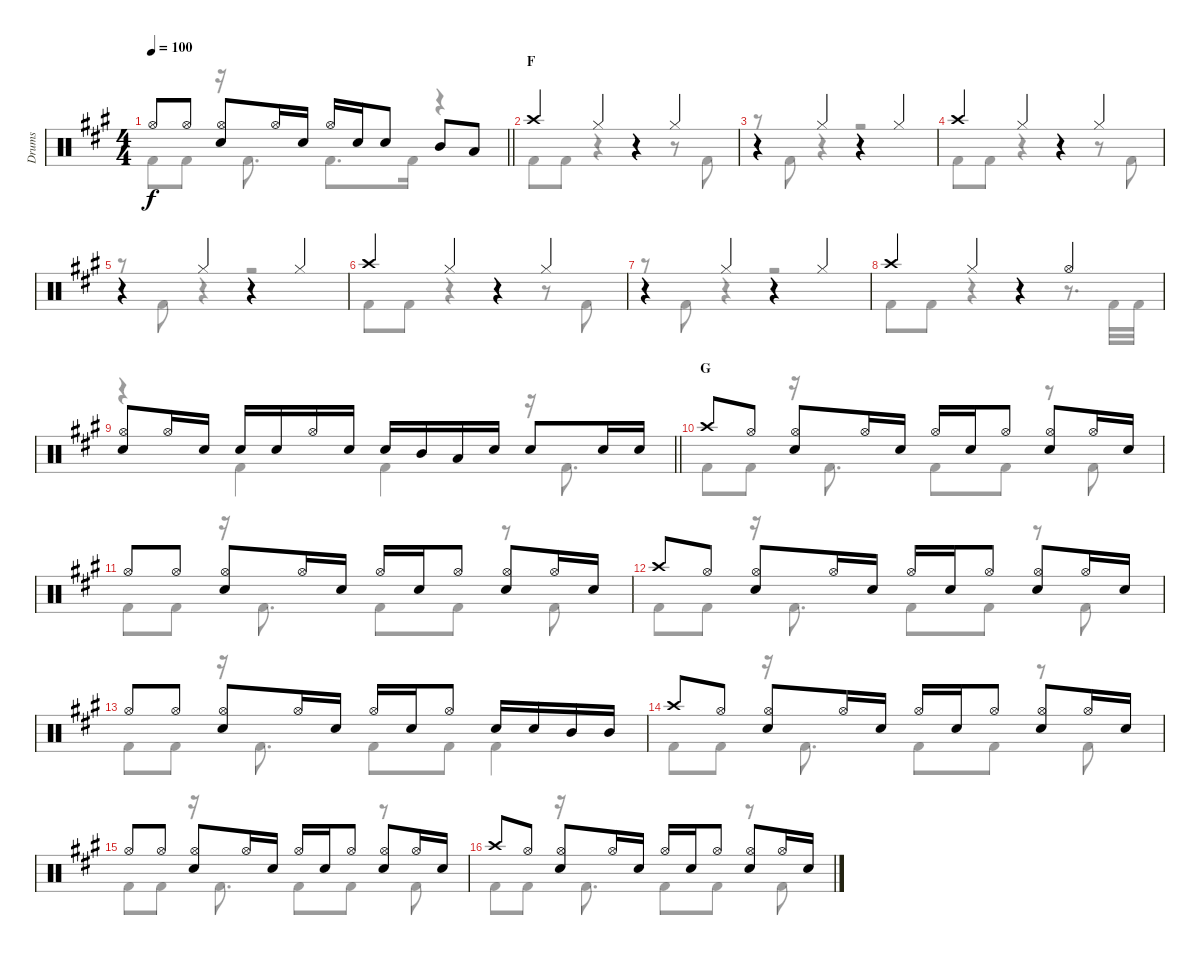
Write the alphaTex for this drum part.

\track ("Drums" "Drums") {instrument percussion}
\staff {score}
\articulation defaults
\voice
\ts (4 4)
\tempo 100
\clef neutral
\barLineRight lightlight
\ks a "Hi-Hat (open)".8{dy f} "Hi-Hat (open)".8
("Hi-Hat (open)" "Electric Snare (hit)").8 "Hi-Hat (open)".16 "Electric Snare (hit)".16 "Hi-Hat (open)".16 "Electric Snare (hit)".16 "Electric Snare (hit)".8 "Mid Tom (hit)".8 "Low Tom (hit)".8 |
\section ("" "F")
"Crash high (hit)".4 "Hi-Hat (closed)".4 r.4 "Hi-Hat (closed)".4 |
r.4 "Hi-Hat (closed)".4 r.4 "Hi-Hat (closed)".4 |
"Crash high (hit)".4 "Hi-Hat (closed)".4 r.4 "Hi-Hat (closed)".4 |
r.4 "Hi-Hat (closed)".4 r.4 "Hi-Hat (closed)".4 |
"Crash high (hit)".4 "Hi-Hat (closed)".4 r.4 "Hi-Hat (closed)".4 |
r.4 "Hi-Hat (closed)".4 r.4 "Hi-Hat (closed)".4 |
"Crash high (hit)".4 "Hi-Hat (closed)".4 r.4 "Hi-Hat (open)".4 |
\barLineRight lightlight
("Hi-Hat (open)" "Electric Snare (hit)").8 "Hi-Hat (open)".16 "Electric Snare (hit)".16 "Electric Snare (hit)".16 "Electric Snare (hit)".16 "Hi-Hat (open)".16 "Electric Snare (hit)".16 "Electric Snare (hit)".16 "Mid Tom (hit)".16 "Low Tom (hit)".16 "Electric Snare (hit)".16 "Electric Snare (hit)".8 "Electric Snare (hit)".16 "Electric Snare (hit)".16 |
\section ("" "G")
"Crash high (hit)".8 "Hi-Hat (open)".8 ("Hi-Hat (open)" "Electric Snare (hit)").8 "Hi-Hat (open)".16 "Electric Snare (hit)".16 "Hi-Hat (open)".16 "Electric Snare (hit)".16 "Hi-Hat (open)".8 ("Hi-Hat (open)" "Electric Snare (hit)").8 "Hi-Hat (open)".16 "Electric Snare (hit)".16 |
"Hi-Hat (open)".8 "Hi-Hat (open)".8 ("Hi-Hat (open)" "Electric Snare (hit)").8 "Hi-Hat (open)".16 "Electric Snare (hit)".16 "Hi-Hat (open)".16 "Electric Snare (hit)".16 "Hi-Hat (open)".8 ("Hi-Hat (open)" "Electric Snare (hit)").8 "Hi-Hat (open)".16 "Electric Snare (hit)".16 |
"Crash high (hit)".8 "Hi-Hat (open)".8 ("Hi-Hat (open)" "Electric Snare (hit)").8 "Hi-Hat (open)".16 "Electric Snare (hit)".16 "Hi-Hat (open)".16 "Electric Snare (hit)".16 "Hi-Hat (open)".8 ("Hi-Hat (open)" "Electric Snare (hit)").8 "Hi-Hat (open)".16 "Electric Snare (hit)".16 |
"Hi-Hat (open)".8 "Hi-Hat (open)".8 ("Hi-Hat (open)" "Electric Snare (hit)").8 "Hi-Hat (open)".16 "Electric Snare (hit)".16 "Hi-Hat (open)".16 "Electric Snare (hit)".16 "Hi-Hat (open)".8 "Electric Snare (hit)".16 "Electric Snare (hit)".16 "Mid Tom (hit)".16 "Mid Tom (hit)".16 |
"Crash high (hit)".8 "Hi-Hat (open)".8 ("Hi-Hat (open)" "Electric Snare (hit)").8 "Hi-Hat (open)".16 "Electric Snare (hit)".16 "Hi-Hat (open)".16 "Electric Snare (hit)".16 "Hi-Hat (open)".8 ("Hi-Hat (open)" "Electric Snare (hit)").8 "Hi-Hat (open)".16 "Electric Snare (hit)".16 |
"Hi-Hat (open)".8 "Hi-Hat (open)".8 ("Hi-Hat (open)" "Electric Snare (hit)").8 "Hi-Hat (open)".16 "Electric Snare (hit)".16 "Hi-Hat (open)".16 "Electric Snare (hit)".16 "Hi-Hat (open)".8 ("Hi-Hat (open)" "Electric Snare (hit)").8 "Hi-Hat (open)".16 "Electric Snare (hit)".16 |
"Crash high (hit)".8 "Hi-Hat (open)".8 ("Hi-Hat (open)" "Electric Snare (hit)").8 "Hi-Hat (open)".16 "Electric Snare (hit)".16 "Hi-Hat (open)".16 "Electric Snare (hit)".16 "Hi-Hat (open)".8 ("Hi-Hat (open)" "Electric Snare (hit)").8 "Hi-Hat (open)".16 "Electric Snare (hit)".16
\voice
\clef neutral
\ottava regular
\simile none
\barLineRight lightlight
\ks a "Kick (hit) 2".8{dy f} "Kick (hit) 2".8
r.16 "Kick (hit) 2".8{d} "Kick (hit) 2".8{d} "Kick (hit) 2".16 r.4 |
"Kick (hit) 2".8 "Kick (hit) 2".8 r.4 r.4 r.8 "Kick (hit) 2".8 |
r.8 "Kick (hit) 2".8 r.4 r.2 |
"Kick (hit) 2".8 "Kick (hit) 2".8 r.4 r.4 r.8 "Kick (hit) 2".8 |
r.8 "Kick (hit) 2".8 r.4 r.2 |
"Kick (hit) 2".8 "Kick (hit) 2".8 r.4 r.4 r.8 "Kick (hit) 2".8 |
r.8 "Kick (hit) 2".8 r.4 r.2 |
"Kick (hit) 2".8 "Kick (hit) 2".8 r.4 r.4 r.8{d} "Kick (hit) 2".32 "Kick (hit) 2".32 |
\barLineRight lightlight
r.4 "Kick (hit) 2".4 "Kick (hit) 2".4 r.16 "Kick (hit) 2".8{d} |
"Kick (hit) 2".8 "Kick (hit) 2".8 r.16 "Kick (hit) 2".8{d} "Kick (hit) 2".8 "Kick (hit) 2".8 r.8 "Kick (hit) 2".8 |
"Kick (hit) 2".8 "Kick (hit) 2".8 r.16 "Kick (hit) 2".8{d} "Kick (hit) 2".8 "Kick (hit) 2".8 r.8 "Kick (hit) 2".8 |
"Kick (hit) 2".8 "Kick (hit) 2".8 r.16 "Kick (hit) 2".8{d} "Kick (hit) 2".8 "Kick (hit) 2".8 r.8 "Kick (hit) 2".8 |
"Kick (hit) 2".8 "Kick (hit) 2".8 r.16 "Kick (hit) 2".8{d} "Kick (hit) 2".8 "Kick (hit) 2".8 "Kick (hit) 2".4 |
"Kick (hit) 2".8 "Kick (hit) 2".8 r.16 "Kick (hit) 2".8{d} "Kick (hit) 2".8 "Kick (hit) 2".8 r.8 "Kick (hit) 2".8 |
"Kick (hit) 2".8 "Kick (hit) 2".8 r.16 "Kick (hit) 2".8{d} "Kick (hit) 2".8 "Kick (hit) 2".8 r.8 "Kick (hit) 2".8 |
"Kick (hit) 2".8 "Kick (hit) 2".8 r.16 "Kick (hit) 2".8{d} "Kick (hit) 2".8 "Kick (hit) 2".8 r.8 "Kick (hit) 2".8
